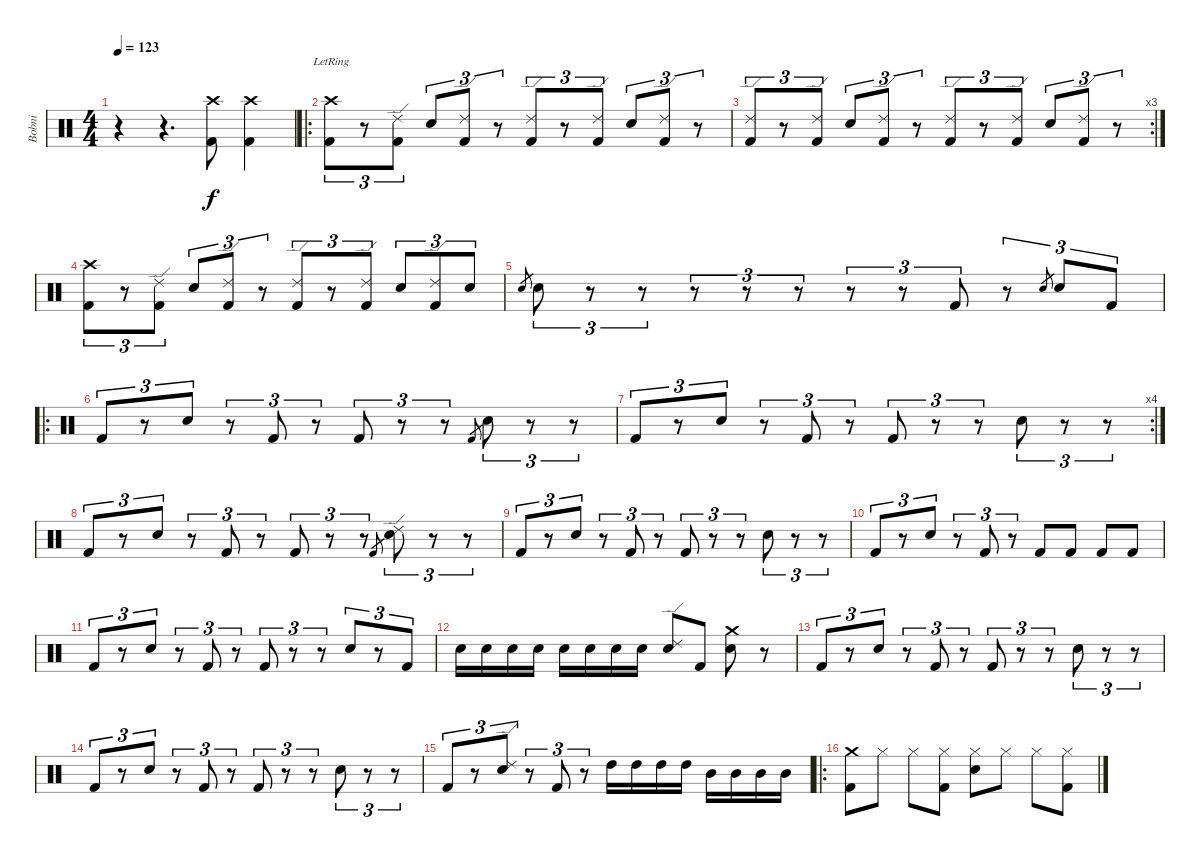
\track ("Bobni" "Bobni") {instrument percussion}
\staff {score}
\articulation defaults
\ts (4 4)
\tempo 123
\clef neutral
\ks c
r.4{dy f} r.4{d} ("Crash high (hit)" "Kick (hit) 2").8 ("Crash high (hit)" "Kick (hit) 2").4 |
\ro
("Crash high (hit)"{lr} "Kick (hit) 2").8{tu (3 2)} r.8{tu (3 2)} ("Ride (edge) 2" "Kick (hit) 2").8{tu (3 2)} "Snare (hit) 2".8{tu (3 2)} ("Ride (edge) 2" "Kick (hit) 2").8{tu (3 2)} r.8{tu (3 2)} ("Ride (edge) 2" "Kick (hit) 2").8{tu (3 2)} r.8{tu (3 2)} ("Ride (edge) 2" "Kick (hit) 2").8{tu (3 2)} "Snare (hit) 2".8{tu (3 2)} ("Ride (edge) 2" "Kick (hit) 2").8{tu (3 2)} r.8{tu (3 2)} |
\rc 3
("Ride (edge) 2" "Kick (hit) 2").8{tu (3 2)} r.8{tu (3 2)} ("Ride (edge) 2" "Kick (hit) 2").8{tu (3 2)} "Snare (hit) 2".8{tu (3 2)} ("Ride (edge) 2" "Kick (hit) 2").8{tu (3 2)} r.8{tu (3 2)} ("Ride (edge) 2" "Kick (hit) 2").8{tu (3 2)} r.8{tu (3 2)} ("Ride (edge) 2" "Kick (hit) 2").8{tu (3 2)} "Snare (hit) 2".8{tu (3 2)} ("Ride (edge) 2" "Kick (hit) 2").8{tu (3 2)} r.8{tu (3 2)} |
("Crash high (hit)" "Kick (hit) 2").8{tu (3 2)} r.8{tu (3 2)} ("Ride (edge) 2" "Kick (hit) 2").8{tu (3 2)} "Snare (hit) 2".8{tu (3 2)} ("Ride (edge) 2" "Kick (hit) 2").8{tu (3 2)} r.8{tu (3 2)} ("Ride (edge) 2" "Kick (hit) 2").8{tu (3 2)} r.8{tu (3 2)} ("Ride (edge) 2" "Kick (hit) 2").8{tu (3 2)} "Snare (hit) 2".8{tu (3 2)} ("Ride (edge) 2" "Kick (hit) 2").8{tu (3 2)} "Snare (hit) 2".8{tu (3 2)} |
"Snare (hit) 2".8{gr} "Snare (hit) 2".8{tu (3 2)} r.8{tu (3 2)} r.8{tu (3 2)} r.8{tu (3 2)} r.8{tu (3 2)} r.8{tu (3 2)} r.8{tu (3 2)} r.8{tu (3 2)} "Kick (hit) 2".8{tu (3 2)} r.8{tu (3 2)} "Snare (hit) 2".8{gr} "Snare (hit) 2".8{tu (3 2)} "Kick (hit) 2".8{tu (3 2)} |
\ro "Kick (hit) 2".8{tu (3 2)}
r.8{tu (3 2)} "Snare (hit) 2".8{tu (3 2)} r.8{tu (3 2)} "Kick (hit) 2".8{tu (3 2)} r.8{tu (3 2)} "Kick (hit) 2".8{tu (3 2)} r.8{tu (3 2)} r.8{tu (3 2)} "Kick (hit) 2".8{gr} "Snare (hit) 2".8{tu (3 2)} r.8{tu (3 2)} r.8{tu (3 2)} |
\rc 4 "Kick (hit) 2".8{tu (3 2)}
r.8{tu (3 2)} "Snare (hit) 2".8{tu (3 2)} r.8{tu (3 2)} "Kick (hit) 2".8{tu (3 2)} r.8{tu (3 2)} "Kick (hit) 2".8{tu (3 2)} r.8{tu (3 2)} r.8{tu (3 2)} "Snare (hit) 2".8{tu (3 2)} r.8{tu (3 2)} r.8{tu (3 2)} |
"Kick (hit) 2".8{tu (3 2)} r.8{tu (3 2)} "Snare (hit) 2".8{tu (3 2)} r.8{tu (3 2)} "Kick (hit) 2".8{tu (3 2)} r.8{tu (3 2)} "Kick (hit) 2".8{tu (3 2)} r.8{tu (3 2)} r.8{tu (3 2)} "Kick (hit) 2".8{gr} ("Ride (edge) 2" "Snare (hit) 2").8{tu (3 2)} r.8{tu (3 2)} r.8{tu (3 2)} |
"Kick (hit) 2".8{tu (3 2)} r.8{tu (3 2)} "Snare (hit) 2".8{tu (3 2)} r.8{tu (3 2)} "Kick (hit) 2".8{tu (3 2)} r.8{tu (3 2)} "Kick (hit) 2".8{tu (3 2)} r.8{tu (3 2)} r.8{tu (3 2)} "Snare (hit) 2".8{tu (3 2)} r.8{tu (3 2)} r.8{tu (3 2)} |
"Kick (hit) 2".8{tu (3 2)} r.8{tu (3 2)} "Snare (hit) 2".8{tu (3 2)} r.8{tu (3 2)} "Kick (hit) 2".8{tu (3 2)} r.8{tu (3 2)} "Kick (hit) 2".8 "Kick (hit) 2".8 "Kick (hit) 2".8 "Kick (hit) 2".8 |
"Kick (hit) 2".8{tu (3 2)} r.8{tu (3 2)} "Snare (hit) 2".8{tu (3 2)} r.8{tu (3 2)} "Kick (hit) 2".8{tu (3 2)} r.8{tu (3 2)} "Kick (hit) 2".8{tu (3 2)} r.8{tu (3 2)} r.8{tu (3 2)} "Snare (hit) 2".8{tu (3 2)} r.8{tu (3 2)} "Kick (hit) 2".8{tu (3 2)} |
"Snare (hit) 2".16 "Snare (hit) 2".16 "Snare (hit) 2".16 "Snare (hit) 2".16 "Snare (hit) 2".16 "Snare (hit) 2".16 "Snare (hit) 2".16 "Snare (hit) 2".16 ("Ride (edge) 2" "Snare (hit) 2").8 "Kick (hit) 2".8 ("Crash medium (hit)" "Snare (hit) 2").8 r.8 |
"Kick (hit) 2".8{tu (3 2)} r.8{tu (3 2)} "Snare (hit) 2".8{tu (3 2)} r.8{tu (3 2)} "Kick (hit) 2".8{tu (3 2)} r.8{tu (3 2)} "Kick (hit) 2".8{tu (3 2)} r.8{tu (3 2)} r.8{tu (3 2)} "Snare (hit) 2".8{tu (3 2)} r.8{tu (3 2)} r.8{tu (3 2)} |
"Kick (hit) 2".8{tu (3 2)} r.8{tu (3 2)} "Snare (hit) 2".8{tu (3 2)} r.8{tu (3 2)} "Kick (hit) 2".8{tu (3 2)} r.8{tu (3 2)} "Kick (hit) 2".8{tu (3 2)} r.8{tu (3 2)} r.8{tu (3 2)} "Snare (hit) 2".8{tu (3 2)} r.8{tu (3 2)} r.8{tu (3 2)} |
"Kick (hit) 2".8{tu (3 2)} r.8{tu (3 2)} ("Ride (edge) 2" "Snare (hit) 2").8{tu (3 2)} r.8{tu (3 2)} "Kick (hit) 2".8{tu (3 2)} r.8{tu (3 2)} "High Tom (hit)".16 "High Tom (hit)".16 "High Tom (hit)".16 "High Tom (hit)".16 "Mid Tom (hit)".16 "Mid Tom (hit)".16 "Mid Tom (hit)".16 "Mid Tom (hit)".16 |
\ro
("Crash medium (hit)" "Kick (hit) 2").8 "Hi-Hat (closed)".8 "Hi-Hat (closed)".8 ("Hi-Hat (closed)" "Kick (hit) 2").8 ("Hi-Hat (closed)" "Snare (hit) 2").8 "Hi-Hat (closed)".8 "Hi-Hat (closed)".8 ("Hi-Hat (closed)" "Kick (hit) 2").8
